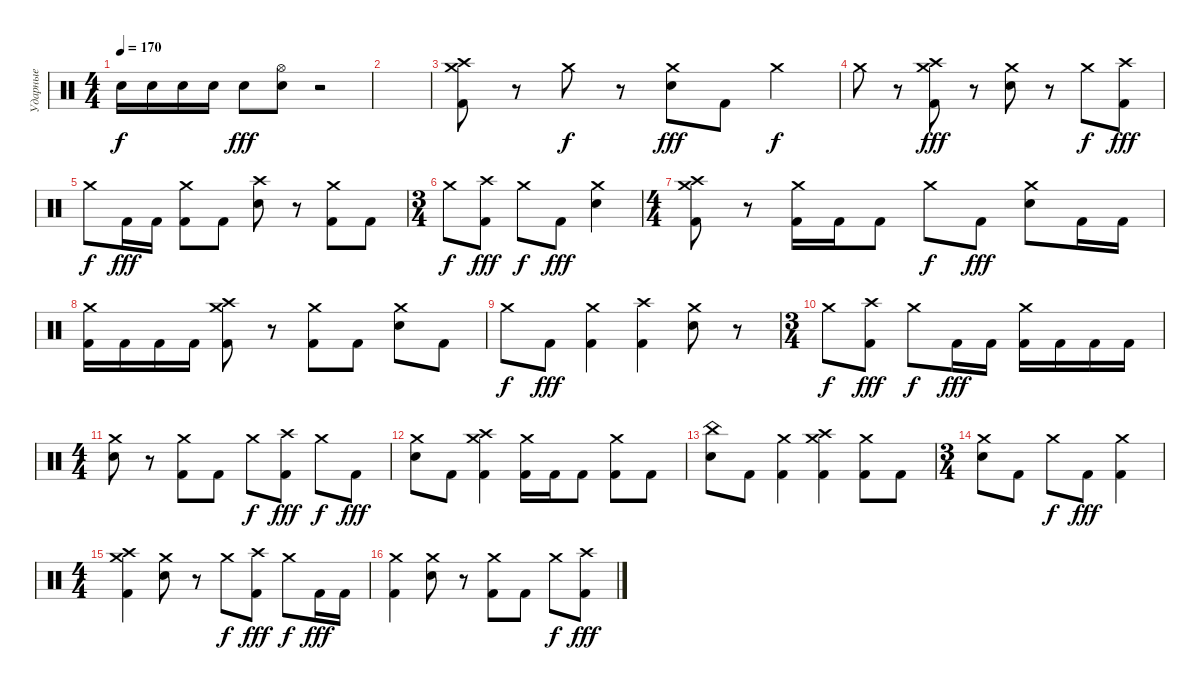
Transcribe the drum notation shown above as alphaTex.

\track ("Ударные" "Ударные") {instrument percussion}
\staff {score}
\articulation defaults
\ts (4 4)
\tempo 170
\clef neutral
\ks c "Electric Snare (hit)".16{dy f} "Electric Snare (hit)".16 "Electric Snare (hit)".16 "Electric Snare (hit)".16 "Electric Snare (hit)".8{dy fff}
("Hi-Hat (open)" "Electric Snare (hit)").8 r.2 |
|
("Crash medium (hit)" "Crash high (hit)" "Kick (hit) 2").8 r.8 "Crash medium (hit)".8{dy f} r.8 ("Crash medium (hit)" "Electric Snare (hit)").8{dy fff} "Kick (hit) 2".8 "Crash medium (hit)".4{dy f} |
"Crash medium (hit)".8 r.8 ("Crash medium (hit)" "Crash high (hit)" "Kick (hit) 2").8{dy fff} r.8 ("Crash medium (hit)" "Electric Snare (hit)").8 r.8 "Crash medium (hit)".8{dy f} ("Crash high (hit)" "Kick (hit) 2").8{dy fff} |
"Crash medium (hit)".8{dy f} "Kick (hit) 2".16{dy fff} "Kick (hit) 2".16 ("Crash medium (hit)" "Kick (hit) 2").8 "Kick (hit) 2".8 ("Crash high (hit)" "Electric Snare (hit)").8 r.8 ("Crash medium (hit)" "Kick (hit) 2").8 "Kick (hit) 2".8 |
\ts (3 4)
"Crash medium (hit)".8{dy f} ("Crash high (hit)" "Kick (hit) 2").8{dy fff} "Crash medium (hit)".8{dy f} "Kick (hit) 2".8{dy fff} ("Crash medium (hit)" "Electric Snare (hit)").4 |
\ts (4 4)
("Crash medium (hit)" "Crash high (hit)" "Kick (hit) 2").8 r.8 ("Crash medium (hit)" "Kick (hit) 2").16 "Kick (hit) 2".16 "Kick (hit) 2".8 "Crash medium (hit)".8{dy f} "Kick (hit) 2".8{dy fff} ("Crash medium (hit)" "Electric Snare (hit)").8 "Kick (hit) 2".16 "Kick (hit) 2".16 |
("Crash medium (hit)" "Kick (hit) 2").16 "Kick (hit) 2".16 "Kick (hit) 2".16 "Kick (hit) 2".16 ("Crash medium (hit)" "Crash high (hit)" "Kick (hit) 2").8 r.8 ("Crash medium (hit)" "Kick (hit) 2").8 "Kick (hit) 2".8 ("Crash medium (hit)" "Electric Snare (hit)").8 "Kick (hit) 2".8 |
"Crash medium (hit)".8{dy f} "Kick (hit) 2".8{dy fff} ("Crash medium (hit)" "Kick (hit) 2").4 ("Crash high (hit)" "Kick (hit) 2").4 ("Crash medium (hit)" "Electric Snare (hit)").8 r.8 |
\ts (3 4)
"Crash medium (hit)".8{dy f} ("Crash high (hit)" "Kick (hit) 2").8{dy fff} "Crash medium (hit)".8{dy f} "Kick (hit) 2".16{dy fff} "Kick (hit) 2".16 ("Crash medium (hit)" "Kick (hit) 2").16 "Kick (hit) 2".16 "Kick (hit) 2".16 "Kick (hit) 2".16 |
\ts (4 4)
("Crash medium (hit)" "Electric Snare (hit)").8 r.8 ("Crash medium (hit)" "Kick (hit) 2").8 "Kick (hit) 2".8 "Crash medium (hit)".8{dy f} ("Crash high (hit)" "Kick (hit) 2").8{dy fff} "Crash medium (hit)".8{dy f} "Kick (hit) 2".8{dy fff} |
("Crash medium (hit)" "Electric Snare (hit)").8 "Kick (hit) 2".8 ("Crash medium (hit)" "Crash high (hit)" "Kick (hit) 2").4 ("Crash medium (hit)" "Kick (hit) 2").16 "Kick (hit) 2".16 "Kick (hit) 2".8 ("Crash medium (hit)" "Kick (hit) 2").8 "Kick (hit) 2".8 |
("China (hit)" "Electric Snare (hit)").8 "Kick (hit) 2".8 ("Crash medium (hit)" "Kick (hit) 2").4 ("Crash medium (hit)" "Crash high (hit)" "Kick (hit) 2").4 ("Crash medium (hit)" "Kick (hit) 2").8 "Kick (hit) 2".8 |
\ts (3 4)
("Crash medium (hit)" "Electric Snare (hit)").8 "Kick (hit) 2".8 "Crash medium (hit)".8{dy f} "Kick (hit) 2".8{dy fff} ("Crash medium (hit)" "Kick (hit) 2").4 |
\ts (4 4)
("Crash medium (hit)" "Crash high (hit)" "Kick (hit) 2").4 ("Crash medium (hit)" "Electric Snare (hit)").8 r.8 "Crash medium (hit)".8{dy f} ("Crash high (hit)" "Kick (hit) 2").8{dy fff} "Crash medium (hit)".8{dy f} "Kick (hit) 2".16{dy fff} "Kick (hit) 2".16 |
("Crash medium (hit)" "Kick (hit) 2").4 ("Crash medium (hit)" "Electric Snare (hit)").8 r.8 ("Crash medium (hit)" "Kick (hit) 2").8 "Kick (hit) 2".8 "Crash medium (hit)".8{dy f} ("Crash high (hit)" "Kick (hit) 2").8{dy fff}
